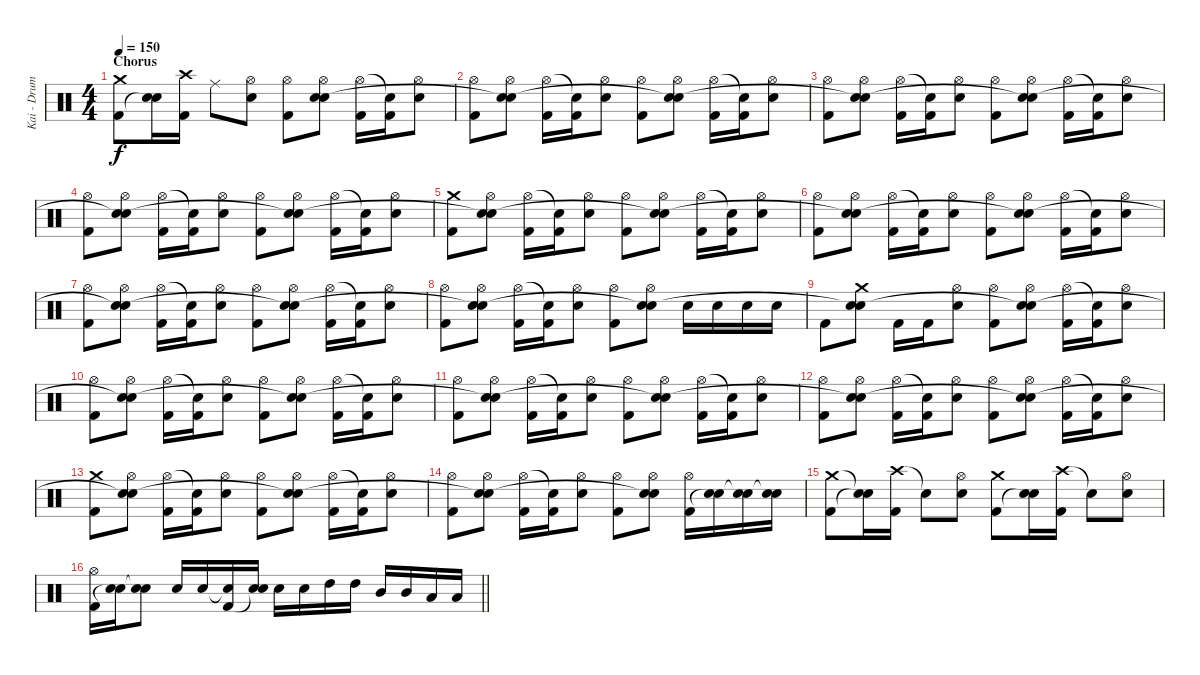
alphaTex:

\track ("Kai - Drums" "Kai - Drum") {instrument percussion}
\staff {score}
\articulation defaults
\ts (4 4)
\section ("" "Chorus")
\tempo 150
\clef neutral
\ks c
("Crash medium (hit)" "Kick (hit) 2").8{dy f} ("Snare (hit) 2" "Snare (hit)"{t}).16 ("Crash high (hit)" "Kick (hit) 2").16 "Ride (middle)".8 ("Hi-Hat (open)" "Snare (hit) 2").8 ("Hi-Hat (open)" "Kick (hit) 2").8 ("Hi-Hat (open)" "Snare (hit) 2" "Snare (hit)"{t}).8 ("Hi-Hat (open)" "Kick (hit) 2").16 ("Snare (hit)"{t} "Kick (hit) 2").16 ("Hi-Hat (open)" "Snare (hit) 2").8 |
("Hi-Hat (open)" "Kick (hit) 2").8 ("Hi-Hat (open)" "Snare (hit) 2" "Snare (hit)"{t}).8 ("Hi-Hat (open)" "Kick (hit) 2").16 ("Snare (hit)"{t} "Kick (hit) 2").16 ("Hi-Hat (open)" "Snare (hit) 2").8 ("Hi-Hat (open)" "Kick (hit) 2").8 ("Hi-Hat (open)" "Snare (hit) 2" "Snare (hit)"{t}).8 ("Hi-Hat (open)" "Kick (hit) 2").16 ("Snare (hit)"{t} "Kick (hit) 2").16 ("Hi-Hat (open)" "Snare (hit) 2").8 |
("Hi-Hat (open)" "Kick (hit) 2").8 ("Hi-Hat (open)" "Snare (hit) 2" "Snare (hit)"{t}).8 ("Hi-Hat (open)" "Kick (hit) 2").16 ("Snare (hit)"{t} "Kick (hit) 2").16 ("Hi-Hat (open)" "Snare (hit) 2").8 ("Hi-Hat (open)" "Kick (hit) 2").8 ("Hi-Hat (open)" "Snare (hit) 2" "Snare (hit)"{t}).8 ("Hi-Hat (open)" "Kick (hit) 2").16 ("Snare (hit)"{t} "Kick (hit) 2").16 ("Hi-Hat (open)" "Snare (hit) 2").8 |
("Hi-Hat (open)" "Kick (hit) 2").8 ("Hi-Hat (open)" "Snare (hit) 2" "Snare (hit)"{t}).8 ("Hi-Hat (open)" "Kick (hit) 2").16 ("Snare (hit)"{t} "Kick (hit) 2").16 ("Hi-Hat (open)" "Snare (hit) 2").8 ("Hi-Hat (open)" "Kick (hit) 2").8 ("Hi-Hat (open)" "Snare (hit) 2" "Snare (hit)"{t}).8 ("Hi-Hat (open)" "Kick (hit) 2").16 ("Snare (hit)"{t} "Kick (hit) 2").16 ("Hi-Hat (open)" "Snare (hit) 2").8 |
("Crash medium (hit)" "Kick (hit) 2").8 ("Hi-Hat (open)" "Snare (hit) 2" "Snare (hit)"{t}).8 ("Hi-Hat (open)" "Kick (hit) 2").16 ("Snare (hit)"{t} "Kick (hit) 2").16 ("Hi-Hat (open)" "Snare (hit) 2").8 ("Hi-Hat (open)" "Kick (hit) 2").8 ("Hi-Hat (open)" "Snare (hit) 2" "Snare (hit)"{t}).8 ("Hi-Hat (open)" "Kick (hit) 2").16 ("Snare (hit)"{t} "Kick (hit) 2").16 ("Hi-Hat (open)" "Snare (hit) 2").8 |
("Hi-Hat (open)" "Kick (hit) 2").8 ("Hi-Hat (open)" "Snare (hit) 2" "Snare (hit)"{t}).8 ("Hi-Hat (open)" "Kick (hit) 2").16 ("Snare (hit)"{t} "Kick (hit) 2").16 ("Hi-Hat (open)" "Snare (hit) 2").8 ("Hi-Hat (open)" "Kick (hit) 2").8 ("Hi-Hat (open)" "Snare (hit) 2" "Snare (hit)"{t}).8 ("Hi-Hat (open)" "Kick (hit) 2").16 ("Snare (hit)"{t} "Kick (hit) 2").16 ("Hi-Hat (open)" "Snare (hit) 2").8 |
("Hi-Hat (open)" "Kick (hit) 2").8 ("Hi-Hat (open)" "Snare (hit) 2" "Snare (hit)"{t}).8 ("Hi-Hat (open)" "Kick (hit) 2").16 ("Snare (hit)"{t} "Kick (hit) 2").16 ("Hi-Hat (open)" "Snare (hit) 2").8 ("Hi-Hat (open)" "Kick (hit) 2").8 ("Hi-Hat (open)" "Snare (hit) 2" "Snare (hit)"{t}).8 ("Hi-Hat (open)" "Kick (hit) 2").16 ("Snare (hit)"{t} "Kick (hit) 2").16 ("Hi-Hat (open)" "Snare (hit) 2").8 |
("Hi-Hat (open)" "Kick (hit) 2").8 ("Hi-Hat (open)" "Snare (hit) 2" "Snare (hit)"{t}).8 ("Hi-Hat (open)" "Kick (hit) 2").16 ("Snare (hit)"{t} "Kick (hit) 2").16 ("Hi-Hat (open)" "Snare (hit) 2").8 ("Hi-Hat (open)" "Kick (hit) 2").8 ("Hi-Hat (open)" "Snare (hit) 2" "Snare (hit)"{t}).8 "Snare (hit) 2".16 "Snare (hit) 2".16 "Snare (hit) 2".16 "Snare (hit) 2".16 |
"Kick (hit) 2".8 ("Crash medium (hit)" "Snare (hit) 2" "Snare (hit)"{t}).8 "Kick (hit) 2".16 "Kick (hit) 2".16 ("Hi-Hat (open)" "Snare (hit) 2").8 ("Hi-Hat (open)" "Kick (hit) 2").8 ("Hi-Hat (open)" "Snare (hit) 2" "Snare (hit)"{t}).8 ("Hi-Hat (open)" "Kick (hit) 2").16 ("Snare (hit)"{t} "Kick (hit) 2").16 ("Hi-Hat (open)" "Snare (hit) 2").8 |
("Hi-Hat (open)" "Kick (hit) 2").8 ("Hi-Hat (open)" "Snare (hit) 2" "Snare (hit)"{t}).8 ("Hi-Hat (open)" "Kick (hit) 2").16 ("Snare (hit)"{t} "Kick (hit) 2").16 ("Hi-Hat (open)" "Snare (hit) 2").8 ("Hi-Hat (open)" "Kick (hit) 2").8 ("Hi-Hat (open)" "Snare (hit) 2" "Snare (hit)"{t}).8 ("Hi-Hat (open)" "Kick (hit) 2").16 ("Snare (hit)"{t} "Kick (hit) 2").16 ("Hi-Hat (open)" "Snare (hit) 2").8 |
("Hi-Hat (open)" "Kick (hit) 2").8 ("Hi-Hat (open)" "Snare (hit) 2" "Snare (hit)"{t}).8 ("Hi-Hat (open)" "Kick (hit) 2").16 ("Snare (hit)"{t} "Kick (hit) 2").16 ("Hi-Hat (open)" "Snare (hit) 2").8 ("Hi-Hat (open)" "Kick (hit) 2").8 ("Hi-Hat (open)" "Snare (hit) 2" "Snare (hit)"{t}).8 ("Hi-Hat (open)" "Kick (hit) 2").16 ("Snare (hit)"{t} "Kick (hit) 2").16 ("Hi-Hat (open)" "Snare (hit) 2").8 |
("Hi-Hat (open)" "Kick (hit) 2").8 ("Hi-Hat (open)" "Snare (hit) 2" "Snare (hit)"{t}).8 ("Hi-Hat (open)" "Kick (hit) 2").16 ("Snare (hit)"{t} "Kick (hit) 2").16 ("Hi-Hat (open)" "Snare (hit) 2").8 ("Hi-Hat (open)" "Kick (hit) 2").8 ("Hi-Hat (open)" "Snare (hit) 2" "Snare (hit)"{t}).8 ("Hi-Hat (open)" "Kick (hit) 2").16 ("Snare (hit)"{t} "Kick (hit) 2").16 ("Hi-Hat (open)" "Snare (hit) 2").8 |
("Crash medium (hit)" "Kick (hit) 2").8 ("Hi-Hat (open)" "Snare (hit) 2" "Snare (hit)"{t}).8 ("Hi-Hat (open)" "Kick (hit) 2").16 ("Snare (hit)"{t} "Kick (hit) 2").16 ("Hi-Hat (open)" "Snare (hit) 2").8 ("Hi-Hat (open)" "Kick (hit) 2").8 ("Hi-Hat (open)" "Snare (hit) 2" "Snare (hit)"{t}).8 ("Hi-Hat (open)" "Kick (hit) 2").16 ("Snare (hit)"{t} "Kick (hit) 2").16 ("Hi-Hat (open)" "Snare (hit) 2").8 |
("Hi-Hat (open)" "Kick (hit) 2").8 ("Hi-Hat (open)" "Snare (hit) 2" "Snare (hit)"{t}).8 ("Hi-Hat (open)" "Kick (hit) 2").16 ("Snare (hit)"{t} "Kick (hit) 2").16 ("Hi-Hat (open)" "Snare (hit) 2").8 ("Hi-Hat (open)" "Kick (hit) 2").8 ("Hi-Hat (open)" "Snare (hit) 2" "Snare (hit)"{t}).8 ("Hi-Hat (open)" "Kick (hit) 2").16 ("Snare (hit) 2" "Snare (hit)"{t}).16 ("Snare (hit) 2" "Snare (hit)"{t}).16 ("Snare (hit) 2" "Snare (hit)"{t}).16 |
("Crash medium (hit)" "Kick (hit) 2").8 ("Snare (hit)"{t} "Snare (hit)"{t}).16 ("Crash high (hit)" "Kick (hit) 2").16 "Snare (hit)"{t}.8 ("Hi-Hat (open)" "Snare (hit) 2").8 ("Crash medium (hit)" "Kick (hit) 2").8 ("Snare (hit) 2" "Snare (hit)"{t}).16 ("Crash high (hit)" "Kick (hit) 2").16 "Snare (hit)"{t}.8 ("Hi-Hat (open)" "Snare (hit) 2").8 |
\barLineRight lightlight
("Hi-Hat (open)" "Kick (hit) 2").16 ("Snare (hit) 2" "Snare (hit)"{t}).16 ("Snare (hit) 2" "Snare (hit)"{t}).8 "Snare (hit) 2".16 "Snare (hit) 2".16 ("Snare (hit)"{t} "Kick (hit) 2").16 ("Snare (hit) 2" "Snare (hit)"{t}).16 "Snare (hit) 2".16 "Snare (hit) 2".16 "High Tom (hit)".16 "High Tom (hit)".16 "Mid Tom (hit)".16 "Mid Tom (hit)".16 "Low Tom (hit)".16 "Low Tom (hit)".16
